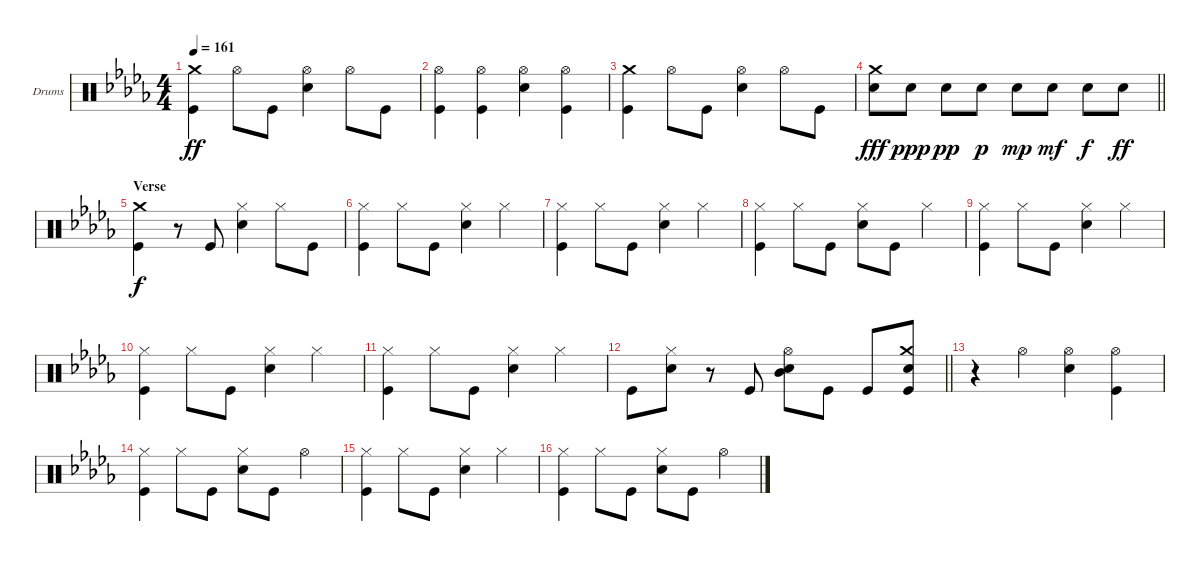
\bracketExtendMode groupsimilarinstruments
\firstSystemTrackNameOrientation horizontal
\otherSystemsTrackNameOrientation horizontal
\track ("Drumkit" "Drums") {instrument percussion}
\staff {score}
\articulation defaults
\ts (4 4)
\tempo 161
\clef neutral
\ks db
("Kick (hit)" "Crash medium (hit)").4{dy ff} "Hi-Hat (open)".8 "Kick (hit)".8 ("Snare (hit) 2" "Hi-Hat (open)").4 "Hi-Hat (open)".8 "Kick (hit)".8 |
("Kick (hit)" "Hi-Hat (open)").4 ("Kick (hit)" "Hi-Hat (open)").4 ("Snare (hit) 2" "Hi-Hat (open)").4 ("Kick (hit)" "Hi-Hat (open)").4 |
("Kick (hit)" "Crash medium (hit)").4 "Hi-Hat (open)".8 "Kick (hit)".8 ("Snare (hit) 2" "Hi-Hat (open)").4 "Hi-Hat (open)".8 "Kick (hit)".8 |
\barLineRight lightlight
("Snare (hit) 2" "Crash medium (hit)").8{dy fff} "Snare (hit) 2".8{dy ppp} "Snare (hit) 2".8{dy pp} "Snare (hit) 2".8{dy p} "Snare (hit) 2".8{dy mp} "Snare (hit) 2".8{dy mf} "Snare (hit) 2".8{dy f} "Snare (hit) 2".8{dy ff} |
\section ("" "Verse")
("Crash medium (hit)" "Kick (hit)").4{dy f} r.8 "Kick (hit)".8 ("Snare (hit) 2" "Hi-Hat (closed)").4 "Hi-Hat (closed)".8 "Kick (hit)".8 |
("Hi-Hat (closed)" "Kick (hit)").4 "Hi-Hat (closed)".8 "Kick (hit)".8 ("Snare (hit) 2" "Hi-Hat (closed)").4 "Hi-Hat (closed)".4 |
("Hi-Hat (closed)" "Kick (hit)").4 "Hi-Hat (closed)".8 "Kick (hit)".8 ("Snare (hit) 2" "Hi-Hat (closed)").4 "Hi-Hat (closed)".4 |
("Hi-Hat (closed)" "Kick (hit)").4 "Hi-Hat (closed)".8 "Kick (hit)".8 ("Snare (hit) 2" "Hi-Hat (closed)").8 "Kick (hit)".8 "Hi-Hat (closed)".4 |
("Hi-Hat (closed)" "Kick (hit)").4 "Hi-Hat (closed)".8 "Kick (hit)".8 ("Snare (hit) 2" "Hi-Hat (closed)").4 "Hi-Hat (closed)".4 |
("Hi-Hat (closed)" "Kick (hit)").4 "Hi-Hat (closed)".8 "Kick (hit)".8 ("Snare (hit) 2" "Hi-Hat (closed)").4 "Hi-Hat (closed)".4 |
("Hi-Hat (closed)" "Kick (hit)").4 "Hi-Hat (closed)".8 "Kick (hit)".8 ("Snare (hit) 2" "Hi-Hat (closed)").4 "Hi-Hat (closed)".4 |
\barLineRight lightlight "Kick (hit)".8
("Snare (hit) 2" "Hi-Hat (closed)").8 r.8 "Kick (hit)".8 ("Snare (hit) 2" "Mid Tom (hit)" "Hi-Hat (open)").8 "Kick (hit)".8 "Kick (hit)".8 ("Kick (hit)" "Snare (hit) 2" "Crash medium (hit)").8 |
r.4 "Hi-Hat (open)".4 ("Snare (hit) 2" "Hi-Hat (open)").4 ("Kick (hit)" "Hi-Hat (open)").4 |
("Hi-Hat (closed)" "Kick (hit)").4 "Hi-Hat (closed)".8 "Kick (hit)".8 ("Snare (hit) 2" "Hi-Hat (closed)").8 "Kick (hit)".8 "Hi-Hat (open)".4 |
("Hi-Hat (closed)" "Kick (hit)").4 "Hi-Hat (closed)".8 "Kick (hit)".8 ("Snare (hit) 2" "Hi-Hat (closed)").4 "Hi-Hat (closed)".4 |
("Hi-Hat (closed)" "Kick (hit)").4 "Hi-Hat (closed)".8 "Kick (hit)".8 ("Snare (hit) 2" "Hi-Hat (closed)").8 "Kick (hit)".8 "Hi-Hat (open)".4
